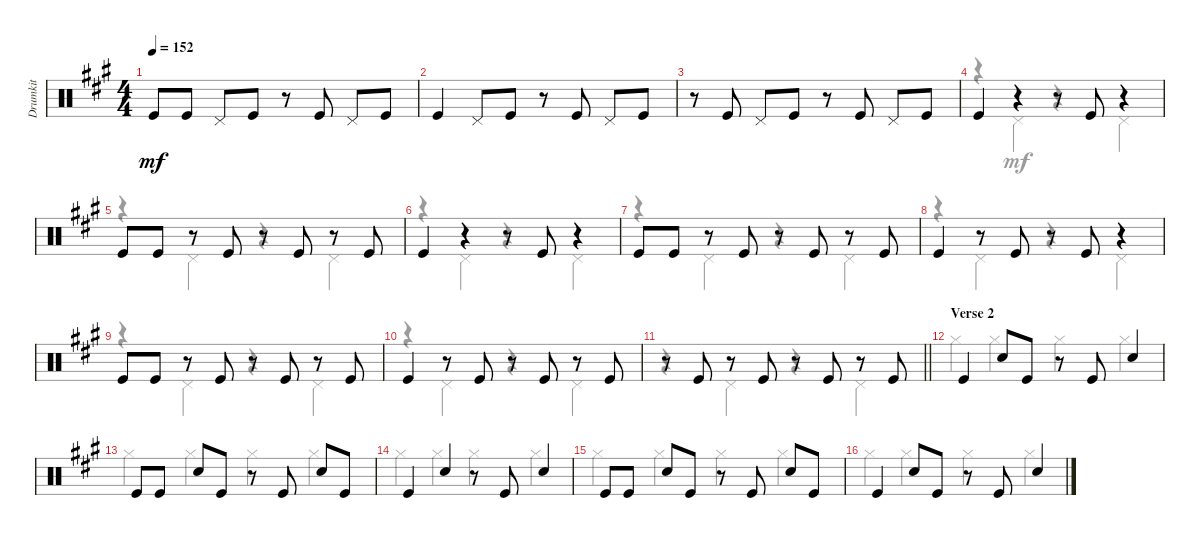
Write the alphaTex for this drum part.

\track ("Drumkit" "Drumkit") {instrument percussion}
\staff {score}
\articulation defaults
\voice
\ts (4 4)
\tempo 152
\clef neutral
\ks a "Kick (hit)".8{dy mf} "Kick (hit)".8 "Pedal Hi-Hat (hit)".8 "Kick (hit)".8
r.8 "Kick (hit)".8 "Pedal Hi-Hat (hit)".8 "Kick (hit)".8 |
"Kick (hit)".4 "Pedal Hi-Hat (hit)".8 "Kick (hit)".8 r.8 "Kick (hit)".8 "Pedal Hi-Hat (hit)".8 "Kick (hit)".8 |
r.8 "Kick (hit)".8 "Pedal Hi-Hat (hit)".8 "Kick (hit)".8 r.8 "Kick (hit)".8 "Pedal Hi-Hat (hit)".8 "Kick (hit)".8 |
"Kick (hit)".4 r.4 r.8 "Kick (hit)".8 r.4 |
"Kick (hit)".8 "Kick (hit)".8 r.8 "Kick (hit)".8 r.8 "Kick (hit)".8 r.8 "Kick (hit)".8 |
"Kick (hit)".4 r.4 r.8 "Kick (hit)".8 r.4 |
"Kick (hit)".8 "Kick (hit)".8 r.8 "Kick (hit)".8 r.8 "Kick (hit)".8 r.8 "Kick (hit)".8 |
"Kick (hit)".4 r.8 "Kick (hit)".8 r.8 "Kick (hit)".8 r.4 |
"Kick (hit)".8 "Kick (hit)".8 r.8 "Kick (hit)".8 r.8 "Kick (hit)".8 r.8 "Kick (hit)".8 |
"Kick (hit)".4 r.8 "Kick (hit)".8 r.8 "Kick (hit)".8 r.8 "Kick (hit)".8 |
\barLineRight lightlight
r.8 "Kick (hit)".8 r.8 "Kick (hit)".8 r.8 "Kick (hit)".8 r.8 "Kick (hit)".8 |
\section ("" "Verse 2")
"Kick (hit)".4 "Snare (hit) 2".8 "Kick (hit)".8 r.8 "Kick (hit)".8 "Snare (hit) 2".4 |
"Kick (hit)".8 "Kick (hit)".8 "Snare (hit) 2".8 "Kick (hit)".8 r.8 "Kick (hit)".8 "Snare (hit) 2".8 "Kick (hit)".8 |
"Kick (hit)".4 "Snare (hit) 2".4 r.8 "Kick (hit)".8 "Snare (hit) 2".4 |
"Kick (hit)".8 "Kick (hit)".8 "Snare (hit) 2".8 "Kick (hit)".8 r.8 "Kick (hit)".8 "Snare (hit) 2".8 "Kick (hit)".8 |
"Kick (hit)".4 "Snare (hit) 2".8 "Kick (hit)".8 r.8 "Kick (hit)".8 "Snare (hit) 2".4
\voice
\clef neutral
\ottava regular
\simile none
\ks a
|
|
|
r.4 "Pedal Hi-Hat (hit)".4 r.4 "Pedal Hi-Hat (hit)".4 |
r.4 "Pedal Hi-Hat (hit)".4 r.4 "Pedal Hi-Hat (hit)".4 |
r.4 "Pedal Hi-Hat (hit)".4 r.4 "Pedal Hi-Hat (hit)".4 |
r.4 "Pedal Hi-Hat (hit)".4 r.4 "Pedal Hi-Hat (hit)".4 |
r.4 "Pedal Hi-Hat (hit)".4 r.4 "Pedal Hi-Hat (hit)".4 |
r.4 "Pedal Hi-Hat (hit)".4 r.4 "Pedal Hi-Hat (hit)".4 |
r.4 "Pedal Hi-Hat (hit)".4 r.4 "Pedal Hi-Hat (hit)".4 |
\barLineRight lightlight
r.4 "Pedal Hi-Hat (hit)".4 r.4 "Pedal Hi-Hat (hit)".4 |
"Hi-Hat (closed)".4 "Hi-Hat (closed)".4 "Hi-Hat (closed)".4 "Hi-Hat (closed)".4 |
"Hi-Hat (closed)".4 "Hi-Hat (closed)".4 "Hi-Hat (closed)".4 "Hi-Hat (closed)".4 |
"Hi-Hat (closed)".4 "Hi-Hat (closed)".4 "Hi-Hat (closed)".4 "Hi-Hat (closed)".4 |
"Hi-Hat (closed)".4 "Hi-Hat (closed)".4 "Hi-Hat (closed)".4 "Hi-Hat (closed)".4 |
"Hi-Hat (closed)".4 "Hi-Hat (closed)".4 "Hi-Hat (closed)".4 "Hi-Hat (closed)".4
